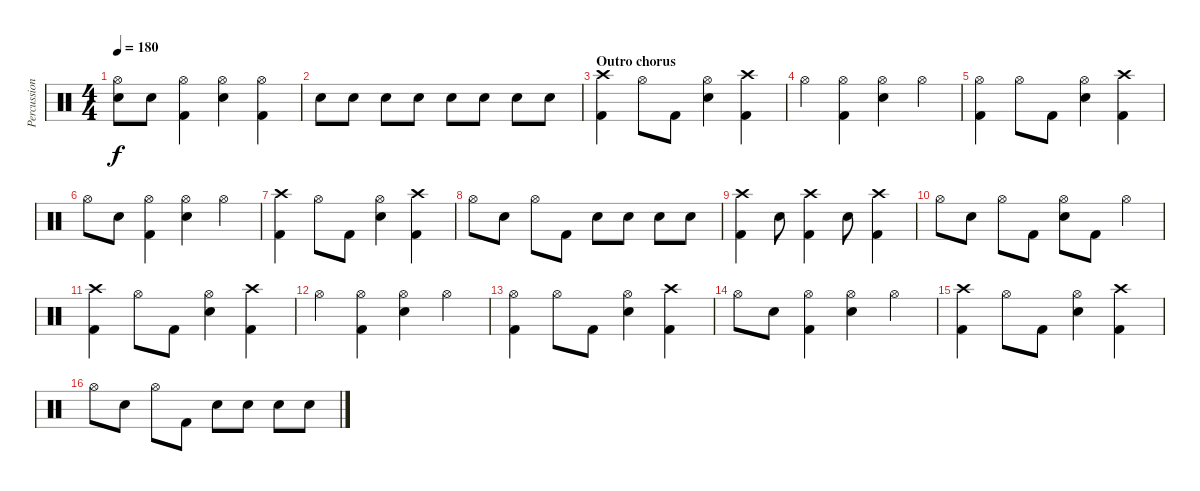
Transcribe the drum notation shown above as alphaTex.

\track ("Percussion" "Percussion") {instrument percussion}
\staff {score}
\articulation defaults
\ts (4 4)
\tempo 180
\clef neutral
\ks c
("Hi-Hat (open)" "Electric Snare (hit)").8{dy f} "Electric Snare (hit)".8 ("Hi-Hat (open)" "Kick (hit) 2").4 ("Hi-Hat (open)" "Electric Snare (hit)").4 ("Hi-Hat (open)" "Kick (hit) 2").4 |
"Electric Snare (hit)".8 "Electric Snare (hit)".8 "Electric Snare (hit)".8 "Electric Snare (hit)".8 "Electric Snare (hit)".8 "Electric Snare (hit)".8 "Electric Snare (hit)".8 "Electric Snare (hit)".8 |
\section ("" "Outro chorus")
("Crash high (hit)" "Kick (hit) 2").4 "Hi-Hat (open)".8 "Kick (hit) 2".8 ("Hi-Hat (open)" "Electric Snare (hit)").4 ("Crash high (hit)" "Kick (hit) 2").4 |
"Hi-Hat (open)".4 ("Hi-Hat (open)" "Kick (hit) 2").4 ("Hi-Hat (open)" "Electric Snare (hit)").4 "Hi-Hat (open)".4 |
("Hi-Hat (open)" "Kick (hit) 2").4 "Hi-Hat (open)".8 "Kick (hit) 2".8 ("Hi-Hat (open)" "Electric Snare (hit)").4 ("Crash high (hit)" "Kick (hit) 2").4 |
"Hi-Hat (open)".8 "Electric Snare (hit)".8 ("Hi-Hat (open)" "Kick (hit) 2").4 ("Hi-Hat (open)" "Electric Snare (hit)").4 "Hi-Hat (open)".4 |
("Crash high (hit)" "Kick (hit) 2").4 "Hi-Hat (open)".8 "Kick (hit) 2".8 ("Hi-Hat (open)" "Electric Snare (hit)").4 ("Crash high (hit)" "Kick (hit) 2").4 |
"Hi-Hat (open)".8 "Electric Snare (hit)".8 "Hi-Hat (open)".8 "Kick (hit) 2".8 "Electric Snare (hit)".8 "Electric Snare (hit)".8 "Electric Snare (hit)".8 "Electric Snare (hit)".8 |
("Crash high (hit)" "Kick (hit) 2").4 "Electric Snare (hit)".8 ("Crash high (hit)" "Kick (hit) 2").4 "Electric Snare (hit)".8 ("Crash high (hit)" "Kick (hit) 2").4 |
"Hi-Hat (open)".8 "Electric Snare (hit)".8 "Hi-Hat (open)".8 "Kick (hit) 2".8 ("Hi-Hat (open)" "Electric Snare (hit)").8 "Kick (hit) 2".8 "Hi-Hat (open)".4 |
("Crash high (hit)" "Kick (hit) 2").4 "Hi-Hat (open)".8 "Kick (hit) 2".8 ("Hi-Hat (open)" "Electric Snare (hit)").4 ("Crash high (hit)" "Kick (hit) 2").4 |
"Hi-Hat (open)".4 ("Hi-Hat (open)" "Kick (hit) 2").4 ("Hi-Hat (open)" "Electric Snare (hit)").4 "Hi-Hat (open)".4 |
("Hi-Hat (open)" "Kick (hit) 2").4 "Hi-Hat (open)".8 "Kick (hit) 2".8 ("Hi-Hat (open)" "Electric Snare (hit)").4 ("Crash high (hit)" "Kick (hit) 2").4 |
"Hi-Hat (open)".8 "Electric Snare (hit)".8 ("Hi-Hat (open)" "Kick (hit) 2").4 ("Hi-Hat (open)" "Electric Snare (hit)").4 "Hi-Hat (open)".4 |
("Crash high (hit)" "Kick (hit) 2").4 "Hi-Hat (open)".8 "Kick (hit) 2".8 ("Hi-Hat (open)" "Electric Snare (hit)").4 ("Crash high (hit)" "Kick (hit) 2").4 |
"Hi-Hat (open)".8 "Electric Snare (hit)".8 "Hi-Hat (open)".8 "Kick (hit) 2".8 "Electric Snare (hit)".8 "Electric Snare (hit)".8 "Electric Snare (hit)".8 "Electric Snare (hit)".8
